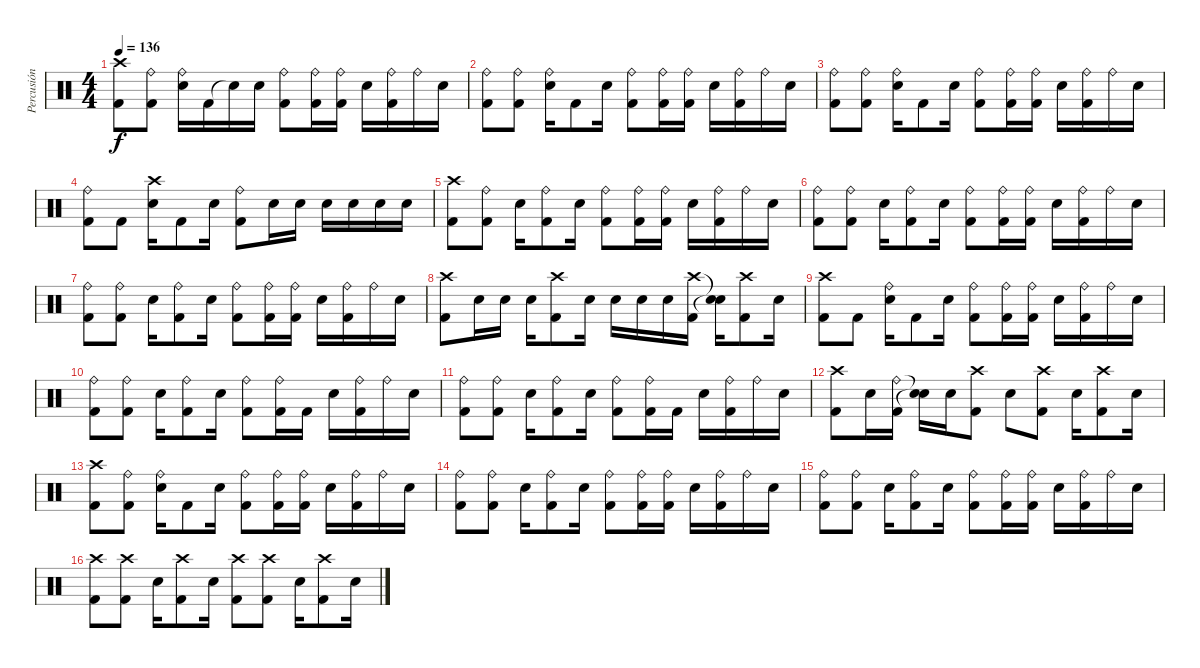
\track ("Percusión" "Percusión") {instrument percussion}
\staff {score}
\articulation defaults
\ts (4 4)
\tempo 136
\clef neutral
\ks c
("Crash high (hit)" "Kick (hit) 2").8{dy f} ("Ride (bell)" "Kick (hit) 2").8 ("Ride (bell)" "Electric Snare (hit)").16 "Kick (hit) 2".16 "Snare (hit)"{t}.16 "Electric Snare (hit)".16 ("Ride (bell)" "Kick (hit) 2").8 ("Ride (bell)" "Kick (hit) 2").16 ("Ride (bell)" "Kick (hit) 2").16 "Electric Snare (hit)".16 ("Ride (bell)" "Kick (hit) 2").16 "Ride (bell)".16 "Electric Snare (hit)".16 |
("Ride (bell)" "Kick (hit) 2").8 ("Ride (bell)" "Kick (hit) 2").8 ("Ride (bell)" "Electric Snare (hit)").16 "Kick (hit) 2".8 "Electric Snare (hit)".16 ("Ride (bell)" "Kick (hit) 2").8 ("Ride (bell)" "Kick (hit) 2").16 ("Ride (bell)" "Kick (hit) 2").16 "Electric Snare (hit)".16 ("Ride (bell)" "Kick (hit) 2").16 "Ride (bell)".16 "Electric Snare (hit)".16 |
("Ride (bell)" "Kick (hit) 2").8 ("Ride (bell)" "Kick (hit) 2").8 ("Ride (bell)" "Electric Snare (hit)").16 "Kick (hit) 2".8 "Electric Snare (hit)".16 ("Ride (bell)" "Kick (hit) 2").8 ("Ride (bell)" "Kick (hit) 2").16 ("Ride (bell)" "Kick (hit) 2").16 "Electric Snare (hit)".16 ("Ride (bell)" "Kick (hit) 2").16 "Ride (bell)".16 "Electric Snare (hit)".16 |
("Ride (bell)" "Kick (hit) 2").8 "Kick (hit) 2".8 ("Crash high (hit)" "Electric Snare (hit)").16 "Kick (hit) 2".8 "Electric Snare (hit)".16 ("Ride (bell)" "Kick (hit) 2").8 "Electric Snare (hit)".16 "Electric Snare (hit)".16 "Electric Snare (hit)".16 "Electric Snare (hit)".16 "Electric Snare (hit)".16 "Electric Snare (hit)".16 |
("Crash high (hit)" "Kick (hit) 2").8 ("Ride (bell)" "Kick (hit) 2").8 "Electric Snare (hit)".16 ("Ride (bell)" "Kick (hit) 2").8 "Electric Snare (hit)".16 ("Ride (bell)" "Kick (hit) 2").8 ("Ride (bell)" "Kick (hit) 2").16 ("Ride (bell)" "Kick (hit) 2").16 "Electric Snare (hit)".16 ("Ride (bell)" "Kick (hit) 2").16 "Ride (bell)".16 "Electric Snare (hit)".16 |
("Ride (bell)" "Kick (hit) 2").8 ("Ride (bell)" "Kick (hit) 2").8 "Electric Snare (hit)".16 ("Ride (bell)" "Kick (hit) 2").8 "Electric Snare (hit)".16 ("Ride (bell)" "Kick (hit) 2").8 ("Ride (bell)" "Kick (hit) 2").16 ("Ride (bell)" "Kick (hit) 2").16 "Electric Snare (hit)".16 ("Ride (bell)" "Kick (hit) 2").16 "Ride (bell)".16 "Electric Snare (hit)".16 |
("Ride (bell)" "Kick (hit) 2").8 ("Ride (bell)" "Kick (hit) 2").8 "Electric Snare (hit)".16 ("Ride (bell)" "Kick (hit) 2").8 "Electric Snare (hit)".16 ("Ride (bell)" "Kick (hit) 2").8 ("Ride (bell)" "Kick (hit) 2").16 ("Ride (bell)" "Kick (hit) 2").16 "Electric Snare (hit)".16 ("Ride (bell)" "Kick (hit) 2").16 "Ride (bell)".16 "Electric Snare (hit)".16 |
("Crash high (hit)" "Kick (hit) 2").8 "Electric Snare (hit)".16 "Electric Snare (hit)".16 "Electric Snare (hit)".16 ("Crash high (hit)" "Kick (hit) 2").8 "Electric Snare (hit)".16 "Electric Snare (hit)".16 "Electric Snare (hit)".16 "Electric Snare (hit)".16 ("Crash high (hit)" "Kick (hit) 2").16 ("Snare (hit)"{t} "Snare (hit)"{t}).16 ("Crash high (hit)" "Kick (hit) 2").8 "Electric Snare (hit)".16 |
("Crash high (hit)" "Kick (hit) 2").8 "Kick (hit) 2".8 ("Ride (bell)" "Electric Snare (hit)").16 "Kick (hit) 2".8 "Electric Snare (hit)".16 ("Ride (bell)" "Kick (hit) 2").8 ("Ride (bell)" "Kick (hit) 2").16 ("Ride (bell)" "Kick (hit) 2").16 "Electric Snare (hit)".16 ("Ride (bell)" "Kick (hit) 2").16 "Ride (bell)".16 "Electric Snare (hit)".16 |
("Ride (bell)" "Kick (hit) 2").8 ("Ride (bell)" "Kick (hit) 2").8 "Electric Snare (hit)".16 ("Ride (bell)" "Kick (hit) 2").8 "Electric Snare (hit)".16 ("Ride (bell)" "Kick (hit) 2").8 ("Ride (bell)" "Kick (hit) 2").16 "Kick (hit) 2".16 "Electric Snare (hit)".16 ("Ride (bell)" "Kick (hit) 2").16 "Ride (bell)".16 "Electric Snare (hit)".16 |
("Ride (bell)" "Kick (hit) 2").8 ("Ride (bell)" "Kick (hit) 2").8 "Electric Snare (hit)".16 ("Ride (bell)" "Kick (hit) 2").8 "Electric Snare (hit)".16 ("Ride (bell)" "Kick (hit) 2").8 ("Ride (bell)" "Kick (hit) 2").16 "Kick (hit) 2".16 "Electric Snare (hit)".16 ("Ride (bell)" "Kick (hit) 2").16 "Ride (bell)".16 "Electric Snare (hit)".16 |
("Crash high (hit)" "Kick (hit) 2").8 "Electric Snare (hit)".16 ("Ride (bell)" "Kick (hit) 2").16 ("Snare (hit)"{t} "Snare (hit)"{t}).16 "Electric Snare (hit)".16 ("Crash high (hit)" "Kick (hit) 2").8 "Electric Snare (hit)".8 ("Crash high (hit)" "Kick (hit) 2").8 "Electric Snare (hit)".16 ("Crash high (hit)" "Kick (hit) 2").8 "Electric Snare (hit)".16 |
("Crash high (hit)" "Kick (hit) 2").8 ("Ride (bell)" "Kick (hit) 2").8 ("Ride (bell)" "Electric Snare (hit)").16 "Kick (hit) 2".8 "Electric Snare (hit)".16 ("Ride (bell)" "Kick (hit) 2").8 ("Ride (bell)" "Kick (hit) 2").16 ("Ride (bell)" "Kick (hit) 2").16 "Electric Snare (hit)".16 ("Ride (bell)" "Kick (hit) 2").16 "Ride (bell)".16 "Electric Snare (hit)".16 |
("Ride (bell)" "Kick (hit) 2").8 ("Ride (bell)" "Kick (hit) 2").8 "Electric Snare (hit)".16 ("Ride (bell)" "Kick (hit) 2").8 "Electric Snare (hit)".16 ("Ride (bell)" "Kick (hit) 2").8 ("Ride (bell)" "Kick (hit) 2").16 ("Ride (bell)" "Kick (hit) 2").16 "Electric Snare (hit)".16 ("Ride (bell)" "Kick (hit) 2").16 "Ride (bell)".16 "Electric Snare (hit)".16 |
("Ride (bell)" "Kick (hit) 2").8 ("Ride (bell)" "Kick (hit) 2").8 "Electric Snare (hit)".16 ("Ride (bell)" "Kick (hit) 2").8 "Electric Snare (hit)".16 ("Ride (bell)" "Kick (hit) 2").8 ("Ride (bell)" "Kick (hit) 2").16 ("Ride (bell)" "Kick (hit) 2").16 "Electric Snare (hit)".16 ("Ride (bell)" "Kick (hit) 2").16 "Ride (bell)".16 "Electric Snare (hit)".16 |
("Crash high (hit)" "Kick (hit) 2").8 ("Crash high (hit)" "Kick (hit) 2").8 "Electric Snare (hit)".16 ("Crash high (hit)" "Kick (hit) 2").8 "Electric Snare (hit)".16 ("Crash high (hit)" "Kick (hit) 2").8 ("Crash high (hit)" "Kick (hit) 2").8 "Electric Snare (hit)".16 ("Crash high (hit)" "Kick (hit) 2").8 "Electric Snare (hit)".16
